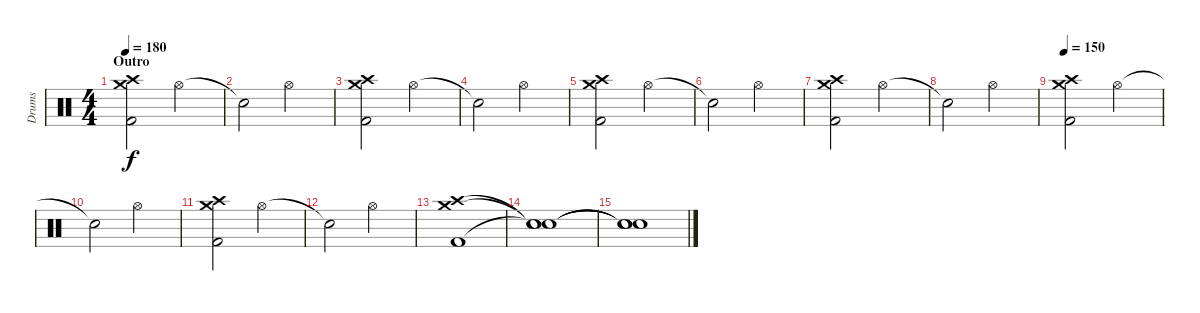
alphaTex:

\track ("Drums" "Drums") {instrument percussion}
\staff {score}
\articulation defaults
\ts (4 4)
\section ("" "Outro")
\tempo 180
\clef neutral
\ks c
("Crash medium (hit)" "Crash high (hit)" "Kick (hit) 2").2{dy f} "Hi-Hat (open)".2 |
"Snare (hit)"{t}.2 "Hi-Hat (open)".2 |
("Crash medium (hit)" "Crash high (hit)" "Kick (hit) 2").2 "Hi-Hat (open)".2 |
"Snare (hit)"{t}.2 "Hi-Hat (open)".2 |
("Crash medium (hit)" "Crash high (hit)" "Kick (hit) 2").2 "Hi-Hat (open)".2 |
"Snare (hit)"{t}.2 "Hi-Hat (open)".2 |
("Crash medium (hit)" "Crash high (hit)" "Kick (hit) 2").2 "Hi-Hat (open)".2 |
"Snare (hit)"{t}.2 "Hi-Hat (open)".2 |
\tempo 150
("Crash medium (hit)" "Crash high (hit)" "Kick (hit) 2").2 "Hi-Hat (open)".2 |
"Snare (hit)"{t}.2 "Hi-Hat (open)".2 |
("Crash medium (hit)" "Crash high (hit)" "Kick (hit) 2").2 "Hi-Hat (open)".2 |
"Snare (hit)"{t}.2 "Hi-Hat (open)".2 |
("Crash medium (hit)" "Crash high (hit)" "Kick (hit) 2").1 |
("Snare (hit)"{t} "Snare (hit)"{t} "Snare (hit)"{t}).1 |
("Snare (hit)"{t} "Snare (hit)"{t} "Snare (hit)"{t}).1
